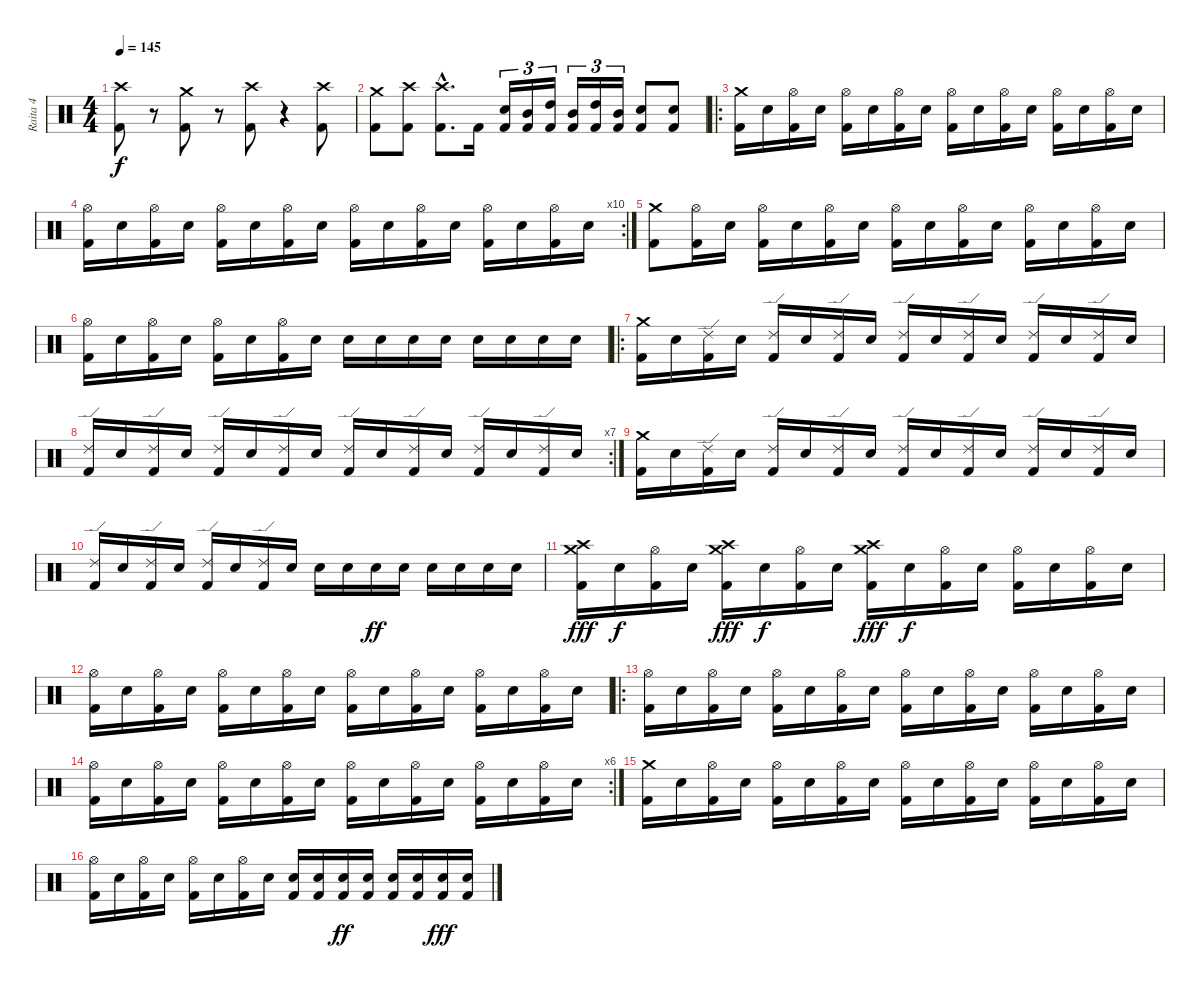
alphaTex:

\track ("Raita 4" "Raita 4") {instrument percussion}
\staff {score}
\articulation defaults
\ts (4 4)
\tempo 145
\clef neutral
\ks c
("Crash high (hit)" "Kick (hit) 2").8{dy f} r.8 ("Crash medium (hit)" "Kick (hit) 2").8 r.8 ("Crash high (hit)" "Kick (hit) 2").8 r.4 ("Crash high (hit)" "Kick (hit) 2").8 |
("Crash medium (hit)" "Kick (hit) 2").8 ("Crash high (hit)" "Kick (hit) 2").8 ("Crash high (hit)"{hac} "Kick (hit) 2"{hac}).8{d} "Kick (hit) 2".16 ("Electric Snare (hit)" "Kick (hit) 2").16{tu (3 2)} ("Mid Tom (hit)" "Kick (hit) 2").16{tu (3 2)} ("High Tom (hit)" "Kick (hit) 2").16{tu (3 2)} ("Mid Tom (hit)" "Kick (hit) 2").16{tu (3 2)} ("High Tom (hit)" "Kick (hit) 2").16{tu (3 2)} ("Mid Tom (hit)" "Kick (hit) 2").16{tu (3 2)} ("Electric Snare (hit)" "Kick (hit) 2").8 ("Electric Snare (hit)" "Kick (hit) 2").8 |
\ro
("Crash medium (hit)" "Kick (hit) 2").16 "Electric Snare (hit)".16 ("Hi-Hat (open)" "Kick (hit) 2").16 "Electric Snare (hit)".16 ("Hi-Hat (open)" "Kick (hit) 2").16 "Electric Snare (hit)".16 ("Hi-Hat (open)" "Kick (hit) 2").16 "Electric Snare (hit)".16 ("Hi-Hat (open)" "Kick (hit) 2").16 "Electric Snare (hit)".16 ("Hi-Hat (open)" "Kick (hit) 2").16 "Electric Snare (hit)".16 ("Hi-Hat (open)" "Kick (hit) 2").16 "Electric Snare (hit)".16 ("Hi-Hat (open)" "Kick (hit) 2").16 "Electric Snare (hit)".16 |
\rc 10
("Hi-Hat (open)" "Kick (hit) 2").16 "Electric Snare (hit)".16 ("Hi-Hat (open)" "Kick (hit) 2").16 "Electric Snare (hit)".16 ("Hi-Hat (open)" "Kick (hit) 2").16 "Electric Snare (hit)".16 ("Hi-Hat (open)" "Kick (hit) 2").16 "Electric Snare (hit)".16 ("Hi-Hat (open)" "Kick (hit) 2").16 "Electric Snare (hit)".16 ("Hi-Hat (open)" "Kick (hit) 2").16 "Electric Snare (hit)".16 ("Hi-Hat (open)" "Kick (hit) 2").16 "Electric Snare (hit)".16 ("Hi-Hat (open)" "Kick (hit) 2").16 "Electric Snare (hit)".16 |
("Crash medium (hit)" "Kick (hit) 2").8 ("Hi-Hat (open)" "Kick (hit) 2").16 "Electric Snare (hit)".16 ("Hi-Hat (open)" "Kick (hit) 2").16 "Electric Snare (hit)".16 ("Hi-Hat (open)" "Kick (hit) 2").16 "Electric Snare (hit)".16 ("Hi-Hat (open)" "Kick (hit) 2").16 "Electric Snare (hit)".16 ("Hi-Hat (open)" "Kick (hit) 2").16 "Electric Snare (hit)".16 ("Hi-Hat (open)" "Kick (hit) 2").16 "Electric Snare (hit)".16 ("Hi-Hat (open)" "Kick (hit) 2").16 "Electric Snare (hit)".16 |
("Hi-Hat (open)" "Kick (hit) 2").16 "Electric Snare (hit)".16 ("Hi-Hat (open)" "Kick (hit) 2").16 "Electric Snare (hit)".16 ("Hi-Hat (open)" "Kick (hit) 2").16 "Electric Snare (hit)".16 ("Hi-Hat (open)" "Kick (hit) 2").16 "Electric Snare (hit)".16 "Electric Snare (hit)".16 "Electric Snare (hit)".16 "Electric Snare (hit)".16 "Electric Snare (hit)".16 "Electric Snare (hit)".16 "Electric Snare (hit)".16 "Electric Snare (hit)".16 "Electric Snare (hit)".16 |
\ro
("Crash medium (hit)" "Kick (hit) 2").16 "Electric Snare (hit)".16 ("Ride (edge) 2" "Kick (hit) 2").16 "Electric Snare (hit)".16 ("Ride (edge) 2" "Kick (hit) 2").16 "Electric Snare (hit)".16 ("Ride (edge) 2" "Kick (hit) 2").16 "Electric Snare (hit)".16 ("Ride (edge) 2" "Kick (hit) 2").16 "Electric Snare (hit)".16 ("Ride (edge) 2" "Kick (hit) 2").16 "Electric Snare (hit)".16 ("Ride (edge) 2" "Kick (hit) 2").16 "Electric Snare (hit)".16 ("Ride (edge) 2" "Kick (hit) 2").16 "Electric Snare (hit)".16 |
\rc 7
("Ride (edge) 2" "Kick (hit) 2").16 "Electric Snare (hit)".16 ("Ride (edge) 2" "Kick (hit) 2").16 "Electric Snare (hit)".16 ("Ride (edge) 2" "Kick (hit) 2").16 "Electric Snare (hit)".16 ("Ride (edge) 2" "Kick (hit) 2").16 "Electric Snare (hit)".16 ("Ride (edge) 2" "Kick (hit) 2").16 "Electric Snare (hit)".16 ("Ride (edge) 2" "Kick (hit) 2").16 "Electric Snare (hit)".16 ("Ride (edge) 2" "Kick (hit) 2").16 "Electric Snare (hit)".16 ("Ride (edge) 2" "Kick (hit) 2").16 "Electric Snare (hit)".16 |
("Crash medium (hit)" "Kick (hit) 2").16 "Electric Snare (hit)".16 ("Ride (edge) 2" "Kick (hit) 2").16 "Electric Snare (hit)".16 ("Ride (edge) 2" "Kick (hit) 2").16 "Electric Snare (hit)".16 ("Ride (edge) 2" "Kick (hit) 2").16 "Electric Snare (hit)".16 ("Ride (edge) 2" "Kick (hit) 2").16 "Electric Snare (hit)".16 ("Ride (edge) 2" "Kick (hit) 2").16 "Electric Snare (hit)".16 ("Ride (edge) 2" "Kick (hit) 2").16 "Electric Snare (hit)".16 ("Ride (edge) 2" "Kick (hit) 2").16 "Electric Snare (hit)".16 |
("Ride (edge) 2" "Kick (hit) 2").16 "Electric Snare (hit)".16 ("Ride (edge) 2" "Kick (hit) 2").16 "Electric Snare (hit)".16 ("Ride (edge) 2" "Kick (hit) 2").16 "Electric Snare (hit)".16 ("Ride (edge) 2" "Kick (hit) 2").16 "Electric Snare (hit)".16 "Electric Snare (hit)".16 "Electric Snare (hit)".16 "Electric Snare (hit)".16{dy ff} "Electric Snare (hit)".16 "Electric Snare (hit)".16 "Electric Snare (hit)".16 "Electric Snare (hit)".16 "Electric Snare (hit)".16 |
("Crash high (hit)" "Crash medium (hit)" "Kick (hit) 2").16{dy fff} "Electric Snare (hit)".16{dy f} ("Hi-Hat (open)" "Kick (hit) 2").16 "Electric Snare (hit)".16 ("Crash high (hit)" "Crash medium (hit)" "Kick (hit) 2").16{dy fff} "Electric Snare (hit)".16{dy f} ("Hi-Hat (open)" "Kick (hit) 2").16 "Electric Snare (hit)".16 ("Crash high (hit)" "Crash medium (hit)" "Kick (hit) 2").16{dy fff} "Electric Snare (hit)".16{dy f} ("Hi-Hat (open)" "Kick (hit) 2").16 "Electric Snare (hit)".16 ("Hi-Hat (open)" "Kick (hit) 2").16 "Electric Snare (hit)".16 ("Hi-Hat (open)" "Kick (hit) 2").16 "Electric Snare (hit)".16 |
("Hi-Hat (open)" "Kick (hit) 2").16 "Electric Snare (hit)".16 ("Hi-Hat (open)" "Kick (hit) 2").16 "Electric Snare (hit)".16 ("Hi-Hat (open)" "Kick (hit) 2").16 "Electric Snare (hit)".16 ("Hi-Hat (open)" "Kick (hit) 2").16 "Electric Snare (hit)".16 ("Hi-Hat (open)" "Kick (hit) 2").16 "Electric Snare (hit)".16 ("Hi-Hat (open)" "Kick (hit) 2").16 "Electric Snare (hit)".16 ("Hi-Hat (open)" "Kick (hit) 2").16 "Electric Snare (hit)".16 ("Hi-Hat (open)" "Kick (hit) 2").16 "Electric Snare (hit)".16 |
\ro
("Hi-Hat (open)" "Kick (hit) 2").16 "Electric Snare (hit)".16 ("Hi-Hat (open)" "Kick (hit) 2").16 "Electric Snare (hit)".16 ("Hi-Hat (open)" "Kick (hit) 2").16 "Electric Snare (hit)".16 ("Hi-Hat (open)" "Kick (hit) 2").16 "Electric Snare (hit)".16 ("Hi-Hat (open)" "Kick (hit) 2").16 "Electric Snare (hit)".16 ("Hi-Hat (open)" "Kick (hit) 2").16 "Electric Snare (hit)".16 ("Hi-Hat (open)" "Kick (hit) 2").16 "Electric Snare (hit)".16 ("Hi-Hat (open)" "Kick (hit) 2").16 "Electric Snare (hit)".16 |
\rc 6
("Hi-Hat (open)" "Kick (hit) 2").16 "Electric Snare (hit)".16 ("Hi-Hat (open)" "Kick (hit) 2").16 "Electric Snare (hit)".16 ("Hi-Hat (open)" "Kick (hit) 2").16 "Electric Snare (hit)".16 ("Hi-Hat (open)" "Kick (hit) 2").16 "Electric Snare (hit)".16 ("Hi-Hat (open)" "Kick (hit) 2").16 "Electric Snare (hit)".16 ("Hi-Hat (open)" "Kick (hit) 2").16 "Electric Snare (hit)".16 ("Hi-Hat (open)" "Kick (hit) 2").16 "Electric Snare (hit)".16 ("Hi-Hat (open)" "Kick (hit) 2").16 "Electric Snare (hit)".16 |
("Crash medium (hit)" "Kick (hit) 2").16 "Electric Snare (hit)".16 ("Hi-Hat (open)" "Kick (hit) 2").16 "Electric Snare (hit)".16 ("Hi-Hat (open)" "Kick (hit) 2").16 "Electric Snare (hit)".16 ("Hi-Hat (open)" "Kick (hit) 2").16 "Electric Snare (hit)".16 ("Hi-Hat (open)" "Kick (hit) 2").16 "Electric Snare (hit)".16 ("Hi-Hat (open)" "Kick (hit) 2").16 "Electric Snare (hit)".16 ("Hi-Hat (open)" "Kick (hit) 2").16 "Electric Snare (hit)".16 ("Hi-Hat (open)" "Kick (hit) 2").16 "Electric Snare (hit)".16 |
("Hi-Hat (open)" "Kick (hit) 2").16 "Electric Snare (hit)".16 ("Hi-Hat (open)" "Kick (hit) 2").16 "Electric Snare (hit)".16 ("Hi-Hat (open)" "Kick (hit) 2").16 "Electric Snare (hit)".16 ("Hi-Hat (open)" "Kick (hit) 2").16 "Electric Snare (hit)".16 ("Electric Snare (hit)" "Kick (hit) 2").16 ("Electric Snare (hit)" "Kick (hit) 2").16 ("Electric Snare (hit)" "Kick (hit) 2").16{dy ff} ("Electric Snare (hit)" "Kick (hit) 2").16 ("Electric Snare (hit)" "Kick (hit) 2").16 ("Electric Snare (hit)" "Kick (hit) 2").16 ("Electric Snare (hit)" "Kick (hit) 2").16{dy fff} ("Electric Snare (hit)" "Kick (hit) 2").16
